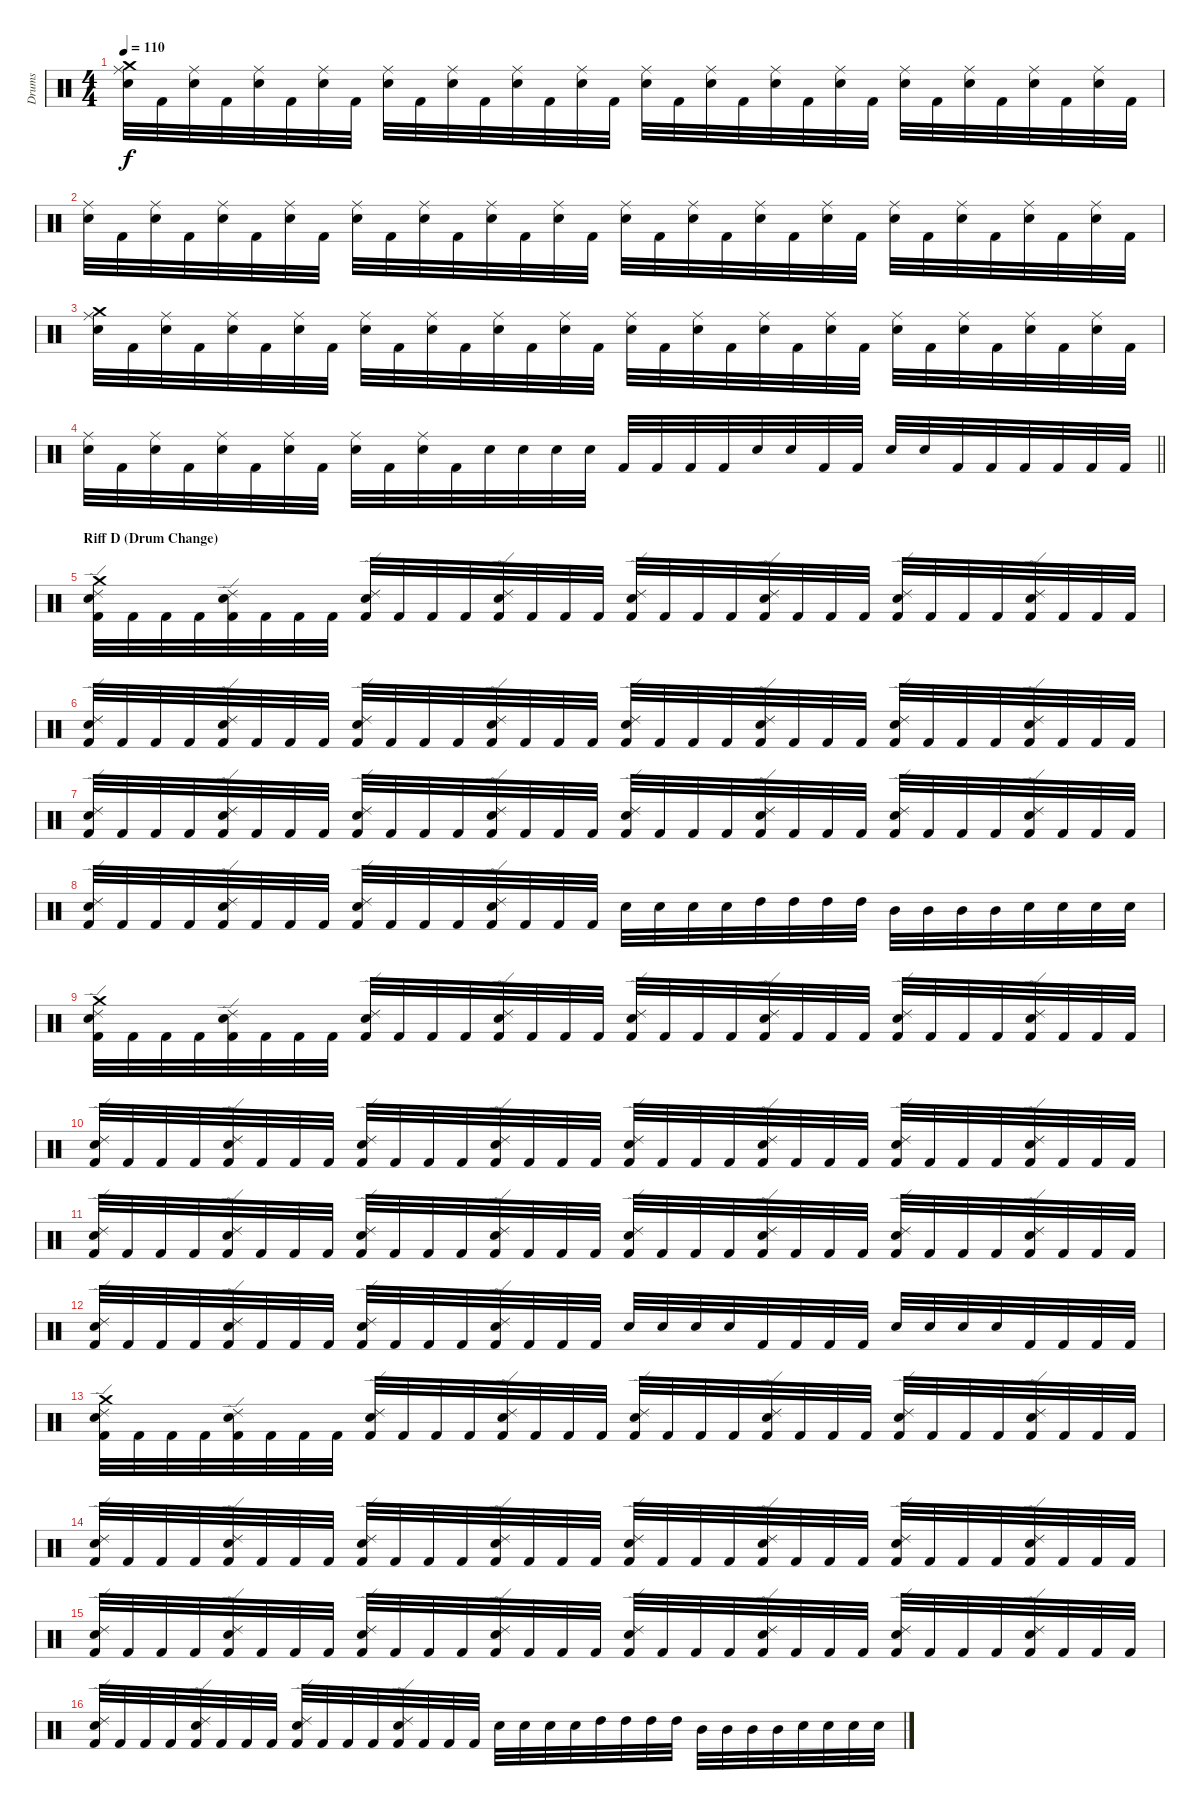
\track ("Drums" "Drums") {instrument percussion}
\staff {score}
\articulation defaults
\ts (4 4)
\tempo 110
\clef neutral
\ks c
("Crash medium (hit)" "Ride (middle)" "Electric Snare (hit)").32{dy f} "Kick (hit) 2".32 ("Ride (middle)" "Electric Snare (hit)").32 "Kick (hit) 2".32 ("Ride (middle)" "Electric Snare (hit)").32 "Kick (hit) 2".32 ("Ride (middle)" "Electric Snare (hit)").32 "Kick (hit) 2".32 ("Ride (middle)" "Electric Snare (hit)").32 "Kick (hit) 2".32 ("Ride (middle)" "Electric Snare (hit)").32 "Kick (hit) 2".32 ("Ride (middle)" "Electric Snare (hit)").32 "Kick (hit) 2".32 ("Ride (middle)" "Electric Snare (hit)").32 "Kick (hit) 2".32 ("Ride (middle)" "Electric Snare (hit)").32 "Kick (hit) 2".32 ("Ride (middle)" "Electric Snare (hit)").32 "Kick (hit) 2".32 ("Ride (middle)" "Electric Snare (hit)").32 "Kick (hit) 2".32 ("Ride (middle)" "Electric Snare (hit)").32 "Kick (hit) 2".32 ("Ride (middle)" "Electric Snare (hit)").32 "Kick (hit) 2".32 ("Ride (middle)" "Electric Snare (hit)").32 "Kick (hit) 2".32 ("Ride (middle)" "Electric Snare (hit)").32 "Kick (hit) 2".32 ("Ride (middle)" "Electric Snare (hit)").32 "Kick (hit) 2".32 |
("Ride (middle)" "Electric Snare (hit)").32 "Kick (hit) 2".32 ("Ride (middle)" "Electric Snare (hit)").32 "Kick (hit) 2".32 ("Ride (middle)" "Electric Snare (hit)").32 "Kick (hit) 2".32 ("Ride (middle)" "Electric Snare (hit)").32 "Kick (hit) 2".32 ("Ride (middle)" "Electric Snare (hit)").32 "Kick (hit) 2".32 ("Ride (middle)" "Electric Snare (hit)").32 "Kick (hit) 2".32 ("Ride (middle)" "Electric Snare (hit)").32 "Kick (hit) 2".32 ("Ride (middle)" "Electric Snare (hit)").32 "Kick (hit) 2".32 ("Ride (middle)" "Electric Snare (hit)").32 "Kick (hit) 2".32 ("Ride (middle)" "Electric Snare (hit)").32 "Kick (hit) 2".32 ("Ride (middle)" "Electric Snare (hit)").32 "Kick (hit) 2".32 ("Ride (middle)" "Electric Snare (hit)").32 "Kick (hit) 2".32 ("Ride (middle)" "Electric Snare (hit)").32 "Kick (hit) 2".32 ("Ride (middle)" "Electric Snare (hit)").32 "Kick (hit) 2".32 ("Ride (middle)" "Electric Snare (hit)").32 "Kick (hit) 2".32 ("Ride (middle)" "Electric Snare (hit)").32 "Kick (hit) 2".32 |
("Crash medium (hit)" "Ride (middle)" "Electric Snare (hit)").32 "Kick (hit) 2".32 ("Ride (middle)" "Electric Snare (hit)").32 "Kick (hit) 2".32 ("Ride (middle)" "Electric Snare (hit)").32 "Kick (hit) 2".32 ("Ride (middle)" "Electric Snare (hit)").32 "Kick (hit) 2".32 ("Ride (middle)" "Electric Snare (hit)").32 "Kick (hit) 2".32 ("Ride (middle)" "Electric Snare (hit)").32 "Kick (hit) 2".32 ("Ride (middle)" "Electric Snare (hit)").32 "Kick (hit) 2".32 ("Ride (middle)" "Electric Snare (hit)").32 "Kick (hit) 2".32 ("Ride (middle)" "Electric Snare (hit)").32 "Kick (hit) 2".32 ("Ride (middle)" "Electric Snare (hit)").32 "Kick (hit) 2".32 ("Ride (middle)" "Electric Snare (hit)").32 "Kick (hit) 2".32 ("Ride (middle)" "Electric Snare (hit)").32 "Kick (hit) 2".32 ("Ride (middle)" "Electric Snare (hit)").32 "Kick (hit) 2".32 ("Ride (middle)" "Electric Snare (hit)").32 "Kick (hit) 2".32 ("Ride (middle)" "Electric Snare (hit)").32 "Kick (hit) 2".32 ("Ride (middle)" "Electric Snare (hit)").32 "Kick (hit) 2".32 |
\barLineRight lightlight
("Ride (middle)" "Electric Snare (hit)").32 "Kick (hit) 2".32 ("Ride (middle)" "Electric Snare (hit)").32 "Kick (hit) 2".32 ("Ride (middle)" "Electric Snare (hit)").32 "Kick (hit) 2".32 ("Ride (middle)" "Electric Snare (hit)").32 "Kick (hit) 2".32 ("Ride (middle)" "Electric Snare (hit)").32 "Kick (hit) 2".32 ("Ride (middle)" "Electric Snare (hit)").32 "Kick (hit) 2".32 "Electric Snare (hit)".32 "Electric Snare (hit)".32 "Electric Snare (hit)".32 "Electric Snare (hit)".32 "Kick (hit) 2".32 "Kick (hit) 2".32 "Kick (hit) 2".32 "Kick (hit) 2".32 "Electric Snare (hit)".32 "Electric Snare (hit)".32 "Kick (hit) 2".32 "Kick (hit) 2".32 "Electric Snare (hit)".32 "Electric Snare (hit)".32 "Kick (hit) 2".32 "Kick (hit) 2".32 "Kick (hit) 2".32 "Kick (hit) 2".32 "Kick (hit) 2".32 "Kick (hit) 2".32 |
\section ("" "Riff D (Drum Change)")
("Crash medium (hit)" "Ride (edge) 2" "Electric Snare (hit)" "Kick (hit) 2").32 "Kick (hit) 2".32 "Kick (hit) 2".32 "Kick (hit) 2".32 ("Ride (edge) 2" "Electric Snare (hit)" "Kick (hit) 2").32 "Kick (hit) 2".32 "Kick (hit) 2".32 "Kick (hit) 2".32 ("Ride (edge) 2" "Electric Snare (hit)" "Kick (hit) 2").32 "Kick (hit) 2".32 "Kick (hit) 2".32 "Kick (hit) 2".32 ("Ride (edge) 2" "Electric Snare (hit)" "Kick (hit) 2").32 "Kick (hit) 2".32 "Kick (hit) 2".32 "Kick (hit) 2".32 ("Ride (edge) 2" "Electric Snare (hit)" "Kick (hit) 2").32 "Kick (hit) 2".32 "Kick (hit) 2".32 "Kick (hit) 2".32 ("Ride (edge) 2" "Electric Snare (hit)" "Kick (hit) 2").32 "Kick (hit) 2".32 "Kick (hit) 2".32 "Kick (hit) 2".32 ("Ride (edge) 2" "Electric Snare (hit)" "Kick (hit) 2").32 "Kick (hit) 2".32 "Kick (hit) 2".32 "Kick (hit) 2".32 ("Ride (edge) 2" "Electric Snare (hit)" "Kick (hit) 2").32 "Kick (hit) 2".32 "Kick (hit) 2".32 "Kick (hit) 2".32 |
("Ride (edge) 2" "Electric Snare (hit)" "Kick (hit) 2").32 "Kick (hit) 2".32 "Kick (hit) 2".32 "Kick (hit) 2".32 ("Ride (edge) 2" "Electric Snare (hit)" "Kick (hit) 2").32 "Kick (hit) 2".32 "Kick (hit) 2".32 "Kick (hit) 2".32 ("Ride (edge) 2" "Electric Snare (hit)" "Kick (hit) 2").32 "Kick (hit) 2".32 "Kick (hit) 2".32 "Kick (hit) 2".32 ("Ride (edge) 2" "Electric Snare (hit)" "Kick (hit) 2").32 "Kick (hit) 2".32 "Kick (hit) 2".32 "Kick (hit) 2".32 ("Ride (edge) 2" "Electric Snare (hit)" "Kick (hit) 2").32 "Kick (hit) 2".32 "Kick (hit) 2".32 "Kick (hit) 2".32 ("Ride (edge) 2" "Electric Snare (hit)" "Kick (hit) 2").32 "Kick (hit) 2".32 "Kick (hit) 2".32 "Kick (hit) 2".32 ("Ride (edge) 2" "Electric Snare (hit)" "Kick (hit) 2").32 "Kick (hit) 2".32 "Kick (hit) 2".32 "Kick (hit) 2".32 ("Ride (edge) 2" "Electric Snare (hit)" "Kick (hit) 2").32 "Kick (hit) 2".32 "Kick (hit) 2".32 "Kick (hit) 2".32 |
("Ride (edge) 2" "Electric Snare (hit)" "Kick (hit) 2").32 "Kick (hit) 2".32 "Kick (hit) 2".32 "Kick (hit) 2".32 ("Ride (edge) 2" "Electric Snare (hit)" "Kick (hit) 2").32 "Kick (hit) 2".32 "Kick (hit) 2".32 "Kick (hit) 2".32 ("Ride (edge) 2" "Electric Snare (hit)" "Kick (hit) 2").32 "Kick (hit) 2".32 "Kick (hit) 2".32 "Kick (hit) 2".32 ("Ride (edge) 2" "Electric Snare (hit)" "Kick (hit) 2").32 "Kick (hit) 2".32 "Kick (hit) 2".32 "Kick (hit) 2".32 ("Ride (edge) 2" "Electric Snare (hit)" "Kick (hit) 2").32 "Kick (hit) 2".32 "Kick (hit) 2".32 "Kick (hit) 2".32 ("Ride (edge) 2" "Electric Snare (hit)" "Kick (hit) 2").32 "Kick (hit) 2".32 "Kick (hit) 2".32 "Kick (hit) 2".32 ("Ride (edge) 2" "Electric Snare (hit)" "Kick (hit) 2").32 "Kick (hit) 2".32 "Kick (hit) 2".32 "Kick (hit) 2".32 ("Ride (edge) 2" "Electric Snare (hit)" "Kick (hit) 2").32 "Kick (hit) 2".32 "Kick (hit) 2".32 "Kick (hit) 2".32 |
("Ride (edge) 2" "Electric Snare (hit)" "Kick (hit) 2").32 "Kick (hit) 2".32 "Kick (hit) 2".32 "Kick (hit) 2".32 ("Ride (edge) 2" "Electric Snare (hit)" "Kick (hit) 2").32 "Kick (hit) 2".32 "Kick (hit) 2".32 "Kick (hit) 2".32 ("Ride (edge) 2" "Electric Snare (hit)" "Kick (hit) 2").32 "Kick (hit) 2".32 "Kick (hit) 2".32 "Kick (hit) 2".32 ("Ride (edge) 2" "Electric Snare (hit)" "Kick (hit) 2").32 "Kick (hit) 2".32 "Kick (hit) 2".32 "Kick (hit) 2".32 "Electric Snare (hit)".32 "Electric Snare (hit)".32 "Electric Snare (hit)".32 "Electric Snare (hit)".32 "High Tom (hit)".32 "High Tom (hit)".32 "High Tom (hit)".32 "High Tom (hit)".32 "Mid Tom (hit)".32 "Mid Tom (hit)".32 "Mid Tom (hit)".32 "Mid Tom (hit)".32 "Electric Snare (hit)".32 "Electric Snare (hit)".32 "Electric Snare (hit)".32 "Electric Snare (hit)".32 |
("Crash medium (hit)" "Ride (edge) 2" "Electric Snare (hit)" "Kick (hit) 2").32 "Kick (hit) 2".32 "Kick (hit) 2".32 "Kick (hit) 2".32 ("Ride (edge) 2" "Electric Snare (hit)" "Kick (hit) 2").32 "Kick (hit) 2".32 "Kick (hit) 2".32 "Kick (hit) 2".32 ("Ride (edge) 2" "Electric Snare (hit)" "Kick (hit) 2").32 "Kick (hit) 2".32 "Kick (hit) 2".32 "Kick (hit) 2".32 ("Ride (edge) 2" "Electric Snare (hit)" "Kick (hit) 2").32 "Kick (hit) 2".32 "Kick (hit) 2".32 "Kick (hit) 2".32 ("Ride (edge) 2" "Electric Snare (hit)" "Kick (hit) 2").32 "Kick (hit) 2".32 "Kick (hit) 2".32 "Kick (hit) 2".32 ("Ride (edge) 2" "Electric Snare (hit)" "Kick (hit) 2").32 "Kick (hit) 2".32 "Kick (hit) 2".32 "Kick (hit) 2".32 ("Ride (edge) 2" "Electric Snare (hit)" "Kick (hit) 2").32 "Kick (hit) 2".32 "Kick (hit) 2".32 "Kick (hit) 2".32 ("Ride (edge) 2" "Electric Snare (hit)" "Kick (hit) 2").32 "Kick (hit) 2".32 "Kick (hit) 2".32 "Kick (hit) 2".32 |
("Ride (edge) 2" "Electric Snare (hit)" "Kick (hit) 2").32 "Kick (hit) 2".32 "Kick (hit) 2".32 "Kick (hit) 2".32 ("Ride (edge) 2" "Electric Snare (hit)" "Kick (hit) 2").32 "Kick (hit) 2".32 "Kick (hit) 2".32 "Kick (hit) 2".32 ("Ride (edge) 2" "Electric Snare (hit)" "Kick (hit) 2").32 "Kick (hit) 2".32 "Kick (hit) 2".32 "Kick (hit) 2".32 ("Ride (edge) 2" "Electric Snare (hit)" "Kick (hit) 2").32 "Kick (hit) 2".32 "Kick (hit) 2".32 "Kick (hit) 2".32 ("Ride (edge) 2" "Electric Snare (hit)" "Kick (hit) 2").32 "Kick (hit) 2".32 "Kick (hit) 2".32 "Kick (hit) 2".32 ("Ride (edge) 2" "Electric Snare (hit)" "Kick (hit) 2").32 "Kick (hit) 2".32 "Kick (hit) 2".32 "Kick (hit) 2".32 ("Ride (edge) 2" "Electric Snare (hit)" "Kick (hit) 2").32 "Kick (hit) 2".32 "Kick (hit) 2".32 "Kick (hit) 2".32 ("Ride (edge) 2" "Electric Snare (hit)" "Kick (hit) 2").32 "Kick (hit) 2".32 "Kick (hit) 2".32 "Kick (hit) 2".32 |
("Ride (edge) 2" "Electric Snare (hit)" "Kick (hit) 2").32 "Kick (hit) 2".32 "Kick (hit) 2".32 "Kick (hit) 2".32 ("Ride (edge) 2" "Electric Snare (hit)" "Kick (hit) 2").32 "Kick (hit) 2".32 "Kick (hit) 2".32 "Kick (hit) 2".32 ("Ride (edge) 2" "Electric Snare (hit)" "Kick (hit) 2").32 "Kick (hit) 2".32 "Kick (hit) 2".32 "Kick (hit) 2".32 ("Ride (edge) 2" "Electric Snare (hit)" "Kick (hit) 2").32 "Kick (hit) 2".32 "Kick (hit) 2".32 "Kick (hit) 2".32 ("Ride (edge) 2" "Electric Snare (hit)" "Kick (hit) 2").32 "Kick (hit) 2".32 "Kick (hit) 2".32 "Kick (hit) 2".32 ("Ride (edge) 2" "Electric Snare (hit)" "Kick (hit) 2").32 "Kick (hit) 2".32 "Kick (hit) 2".32 "Kick (hit) 2".32 ("Ride (edge) 2" "Electric Snare (hit)" "Kick (hit) 2").32 "Kick (hit) 2".32 "Kick (hit) 2".32 "Kick (hit) 2".32 ("Ride (edge) 2" "Electric Snare (hit)" "Kick (hit) 2").32 "Kick (hit) 2".32 "Kick (hit) 2".32 "Kick (hit) 2".32 |
("Ride (edge) 2" "Electric Snare (hit)" "Kick (hit) 2").32 "Kick (hit) 2".32 "Kick (hit) 2".32 "Kick (hit) 2".32 ("Ride (edge) 2" "Electric Snare (hit)" "Kick (hit) 2").32 "Kick (hit) 2".32 "Kick (hit) 2".32 "Kick (hit) 2".32 ("Ride (edge) 2" "Electric Snare (hit)" "Kick (hit) 2").32 "Kick (hit) 2".32 "Kick (hit) 2".32 "Kick (hit) 2".32 ("Ride (edge) 2" "Electric Snare (hit)" "Kick (hit) 2").32 "Kick (hit) 2".32 "Kick (hit) 2".32 "Kick (hit) 2".32 "Electric Snare (hit)".32 "Electric Snare (hit)".32 "Electric Snare (hit)".32 "Electric Snare (hit)".32 "Kick (hit) 2".32 "Kick (hit) 2".32 "Kick (hit) 2".32 "Kick (hit) 2".32 "Electric Snare (hit)".32 "Electric Snare (hit)".32 "Electric Snare (hit)".32 "Electric Snare (hit)".32 "Kick (hit) 2".32 "Kick (hit) 2".32 "Kick (hit) 2".32 "Kick (hit) 2".32 |
("Crash medium (hit)" "Ride (edge) 2" "Electric Snare (hit)" "Kick (hit) 2").32 "Kick (hit) 2".32 "Kick (hit) 2".32 "Kick (hit) 2".32 ("Ride (edge) 2" "Electric Snare (hit)" "Kick (hit) 2").32 "Kick (hit) 2".32 "Kick (hit) 2".32 "Kick (hit) 2".32 ("Ride (edge) 2" "Electric Snare (hit)" "Kick (hit) 2").32 "Kick (hit) 2".32 "Kick (hit) 2".32 "Kick (hit) 2".32 ("Ride (edge) 2" "Electric Snare (hit)" "Kick (hit) 2").32 "Kick (hit) 2".32 "Kick (hit) 2".32 "Kick (hit) 2".32 ("Ride (edge) 2" "Electric Snare (hit)" "Kick (hit) 2").32 "Kick (hit) 2".32 "Kick (hit) 2".32 "Kick (hit) 2".32 ("Ride (edge) 2" "Electric Snare (hit)" "Kick (hit) 2").32 "Kick (hit) 2".32 "Kick (hit) 2".32 "Kick (hit) 2".32 ("Ride (edge) 2" "Electric Snare (hit)" "Kick (hit) 2").32 "Kick (hit) 2".32 "Kick (hit) 2".32 "Kick (hit) 2".32 ("Ride (edge) 2" "Electric Snare (hit)" "Kick (hit) 2").32 "Kick (hit) 2".32 "Kick (hit) 2".32 "Kick (hit) 2".32 |
("Ride (edge) 2" "Electric Snare (hit)" "Kick (hit) 2").32 "Kick (hit) 2".32 "Kick (hit) 2".32 "Kick (hit) 2".32 ("Ride (edge) 2" "Electric Snare (hit)" "Kick (hit) 2").32 "Kick (hit) 2".32 "Kick (hit) 2".32 "Kick (hit) 2".32 ("Ride (edge) 2" "Electric Snare (hit)" "Kick (hit) 2").32 "Kick (hit) 2".32 "Kick (hit) 2".32 "Kick (hit) 2".32 ("Ride (edge) 2" "Electric Snare (hit)" "Kick (hit) 2").32 "Kick (hit) 2".32 "Kick (hit) 2".32 "Kick (hit) 2".32 ("Ride (edge) 2" "Electric Snare (hit)" "Kick (hit) 2").32 "Kick (hit) 2".32 "Kick (hit) 2".32 "Kick (hit) 2".32 ("Ride (edge) 2" "Electric Snare (hit)" "Kick (hit) 2").32 "Kick (hit) 2".32 "Kick (hit) 2".32 "Kick (hit) 2".32 ("Ride (edge) 2" "Electric Snare (hit)" "Kick (hit) 2").32 "Kick (hit) 2".32 "Kick (hit) 2".32 "Kick (hit) 2".32 ("Ride (edge) 2" "Electric Snare (hit)" "Kick (hit) 2").32 "Kick (hit) 2".32 "Kick (hit) 2".32 "Kick (hit) 2".32 |
("Ride (edge) 2" "Electric Snare (hit)" "Kick (hit) 2").32 "Kick (hit) 2".32 "Kick (hit) 2".32 "Kick (hit) 2".32 ("Ride (edge) 2" "Electric Snare (hit)" "Kick (hit) 2").32 "Kick (hit) 2".32 "Kick (hit) 2".32 "Kick (hit) 2".32 ("Ride (edge) 2" "Electric Snare (hit)" "Kick (hit) 2").32 "Kick (hit) 2".32 "Kick (hit) 2".32 "Kick (hit) 2".32 ("Ride (edge) 2" "Electric Snare (hit)" "Kick (hit) 2").32 "Kick (hit) 2".32 "Kick (hit) 2".32 "Kick (hit) 2".32 ("Ride (edge) 2" "Electric Snare (hit)" "Kick (hit) 2").32 "Kick (hit) 2".32 "Kick (hit) 2".32 "Kick (hit) 2".32 ("Ride (edge) 2" "Electric Snare (hit)" "Kick (hit) 2").32 "Kick (hit) 2".32 "Kick (hit) 2".32 "Kick (hit) 2".32 ("Ride (edge) 2" "Electric Snare (hit)" "Kick (hit) 2").32 "Kick (hit) 2".32 "Kick (hit) 2".32 "Kick (hit) 2".32 ("Ride (edge) 2" "Electric Snare (hit)" "Kick (hit) 2").32 "Kick (hit) 2".32 "Kick (hit) 2".32 "Kick (hit) 2".32 |
("Ride (edge) 2" "Electric Snare (hit)" "Kick (hit) 2").32 "Kick (hit) 2".32 "Kick (hit) 2".32 "Kick (hit) 2".32 ("Ride (edge) 2" "Electric Snare (hit)" "Kick (hit) 2").32 "Kick (hit) 2".32 "Kick (hit) 2".32 "Kick (hit) 2".32 ("Ride (edge) 2" "Electric Snare (hit)" "Kick (hit) 2").32 "Kick (hit) 2".32 "Kick (hit) 2".32 "Kick (hit) 2".32 ("Ride (edge) 2" "Electric Snare (hit)" "Kick (hit) 2").32 "Kick (hit) 2".32 "Kick (hit) 2".32 "Kick (hit) 2".32 "Electric Snare (hit)".32 "Electric Snare (hit)".32 "Electric Snare (hit)".32 "Electric Snare (hit)".32 "High Tom (hit)".32 "High Tom (hit)".32 "High Tom (hit)".32 "High Tom (hit)".32 "Mid Tom (hit)".32 "Mid Tom (hit)".32 "Mid Tom (hit)".32 "Mid Tom (hit)".32 "Electric Snare (hit)".32 "Electric Snare (hit)".32 "Electric Snare (hit)".32 "Electric Snare (hit)".32
